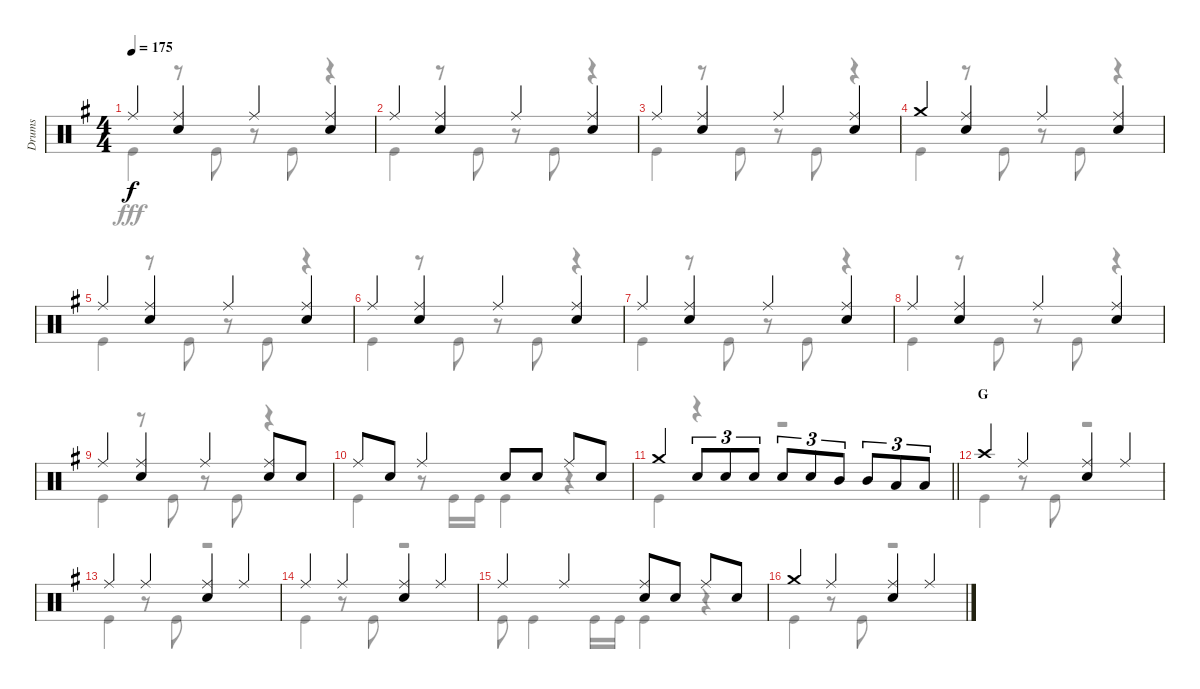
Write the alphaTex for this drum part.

\track ("Drums" "Drums") {instrument percussion}
\staff {score}
\articulation defaults
\voice
\ts (4 4)
\tempo 175
\clef neutral
\ks g "Ride (middle)".4{dy f}
("Ride (middle)" "Snare (hit) 2").4 "Ride (middle)".4 ("Ride (middle)" "Snare (hit) 2").4 |
"Ride (middle)".4 ("Ride (middle)" "Snare (hit) 2").4 "Ride (middle)".4 ("Ride (middle)" "Snare (hit) 2").4 |
"Ride (middle)".4 ("Ride (middle)" "Snare (hit) 2").4 "Ride (middle)".4 ("Ride (middle)" "Snare (hit) 2").4 |
"Crash medium (hit)".4 ("Ride (middle)" "Snare (hit) 2").4 "Ride (middle)".4 ("Ride (middle)" "Snare (hit) 2").4 |
"Ride (middle)".4 ("Ride (middle)" "Snare (hit) 2").4 "Ride (middle)".4 ("Ride (middle)" "Snare (hit) 2").4 |
"Ride (middle)".4 ("Ride (middle)" "Snare (hit) 2").4 "Ride (middle)".4 ("Ride (middle)" "Snare (hit) 2").4 |
"Ride (middle)".4 ("Ride (middle)" "Snare (hit) 2").4 "Ride (middle)".4 ("Ride (middle)" "Snare (hit) 2").4 |
"Ride (middle)".4 ("Ride (middle)" "Snare (hit) 2").4 "Ride (middle)".4 ("Ride (middle)" "Snare (hit) 2").4 |
"Ride (middle)".4 ("Ride (middle)" "Snare (hit) 2").4 "Ride (middle)".4 ("Ride (middle)" "Snare (hit) 2").8 "Snare (hit) 2".8 |
"Ride (middle)".8 "Snare (hit) 2".8 "Ride (middle)".4 "Snare (hit) 2".8 "Snare (hit) 2".8 "Ride (middle)".8 "Snare (hit) 2".8 |
\barLineRight lightlight "Crash medium (hit)".4 "Snare (hit) 2".8{tu (3 2)} "Snare (hit) 2".8{tu (3 2)} "Snare (hit) 2".8{tu (3 2)} "Snare (hit) 2".8{tu (3 2)} "Snare (hit) 2".8{tu (3 2)} "Mid Tom (hit)".8{tu (3 2)} "Mid Tom (hit)".8{tu (3 2)} "Low Tom (hit)".8{tu (3 2)} "Low Tom (hit)".8{tu (3 2)}
|
\section ("" "G")
"Crash high (hit)".4 "Ride (middle)".4 ("Ride (middle)" "Snare (hit) 2").4 "Ride (middle)".4 |
"Ride (middle)".4 "Ride (middle)".4 ("Ride (middle)" "Snare (hit) 2").4 "Ride (middle)".4 |
"Ride (middle)".4 "Ride (middle)".4 ("Ride (middle)" "Snare (hit) 2").4 "Ride (middle)".4 |
"Ride (middle)".4 "Ride (middle)".4 ("Ride (middle)" "Snare (hit) 2").8 "Snare (hit) 2".8 "Ride (middle)".8 "Snare (hit) 2".8 |
"Crash medium (hit)".4 "Ride (middle)".4 ("Ride (middle)" "Snare (hit) 2").4 "Ride (middle)".4
\voice
\clef neutral
\ottava regular
\simile none
\ks g "Kick (hit)".4{dy fff}
r.8 "Kick (hit)".8 r.8 "Kick (hit)".8 r.4 |
"Kick (hit)".4 r.8 "Kick (hit)".8 r.8 "Kick (hit)".8 r.4 |
"Kick (hit)".4 r.8 "Kick (hit)".8 r.8 "Kick (hit)".8 r.4 |
"Kick (hit)".4 r.8 "Kick (hit)".8 r.8 "Kick (hit)".8 r.4 |
"Kick (hit)".4 r.8 "Kick (hit)".8 r.8 "Kick (hit)".8 r.4 |
"Kick (hit)".4 r.8 "Kick (hit)".8 r.8 "Kick (hit)".8 r.4 |
"Kick (hit)".4 r.8 "Kick (hit)".8 r.8 "Kick (hit)".8 r.4 |
"Kick (hit)".4 r.8 "Kick (hit)".8 r.8 "Kick (hit)".8 r.4 |
"Kick (hit)".4 r.8 "Kick (hit)".8 r.8 "Kick (hit)".8 r.4 |
"Kick (hit)".4 r.8 "Kick (hit)".16 "Kick (hit)".16 "Kick (hit)".4 r.4 |
\barLineRight lightlight "Kick (hit)".4
r.4 r.2 |
"Kick (hit)".4 r.8 "Kick (hit)".8 r.2 |
"Kick (hit)".4 r.8 "Kick (hit)".8 r.2 |
"Kick (hit)".4 r.8 "Kick (hit)".8 r.2 |
"Kick (hit)".8 "Kick (hit)".4 "Kick (hit)".16 "Kick (hit)".16 "Kick (hit)".4 r.4 |
"Kick (hit)".4 r.8 "Kick (hit)".8 r.2
